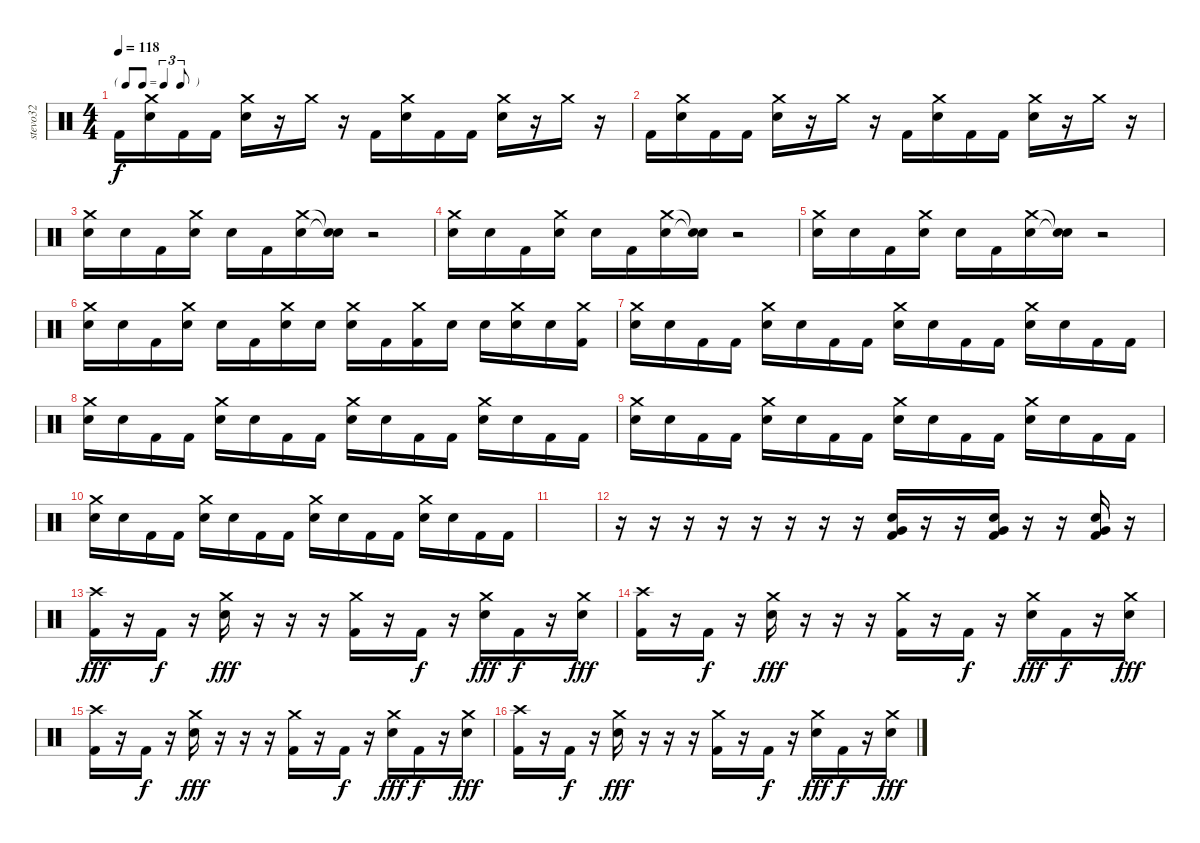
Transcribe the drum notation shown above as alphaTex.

\track ("stevo32" "stevo32") {instrument percussion}
\staff {score}
\articulation defaults
\ts (4 4)
\tf triplet8th
\tempo 118
\clef neutral
\ks c "Kick (hit) 2".16{dy f}
("Crash medium (hit)" "Electric Snare (hit)").16 "Kick (hit) 2".16 "Kick (hit) 2".16 ("Crash medium (hit)" "Electric Snare (hit)").16 r.16 "Crash medium (hit)".16 r.16 "Kick (hit) 2".16 ("Crash medium (hit)" "Electric Snare (hit)").16 "Kick (hit) 2".16 "Kick (hit) 2".16 ("Crash medium (hit)" "Electric Snare (hit)").16 r.16 "Crash medium (hit)".16 r.16 |
"Kick (hit) 2".16 ("Crash medium (hit)" "Electric Snare (hit)").16 "Kick (hit) 2".16 "Kick (hit) 2".16 ("Crash medium (hit)" "Electric Snare (hit)").16 r.16 "Crash medium (hit)".16 r.16 "Kick (hit) 2".16 ("Crash medium (hit)" "Electric Snare (hit)").16 "Kick (hit) 2".16 "Kick (hit) 2".16 ("Crash medium (hit)" "Electric Snare (hit)").16 r.16 "Crash medium (hit)".16 r.16 |
("Crash medium (hit)" "Electric Snare (hit)").16 "Electric Snare (hit)".16 "Kick (hit) 2".16 ("Crash medium (hit)" "Electric Snare (hit)").16 "Electric Snare (hit)".16 "Kick (hit) 2".16 ("Crash medium (hit)" "Electric Snare (hit)").16 ("Snare (hit)"{t} "Snare (hit)"{t}).16 r.2 |
("Crash medium (hit)" "Electric Snare (hit)").16 "Electric Snare (hit)".16 "Kick (hit) 2".16 ("Crash medium (hit)" "Electric Snare (hit)").16 "Electric Snare (hit)".16 "Kick (hit) 2".16 ("Crash medium (hit)" "Electric Snare (hit)").16 ("Snare (hit)"{t} "Snare (hit)"{t}).16 r.2 |
("Crash medium (hit)" "Electric Snare (hit)").16 "Electric Snare (hit)".16 "Kick (hit) 2".16 ("Crash medium (hit)" "Electric Snare (hit)").16 "Electric Snare (hit)".16 "Kick (hit) 2".16 ("Crash medium (hit)" "Electric Snare (hit)").16 ("Snare (hit)"{t} "Snare (hit)"{t}).16 r.2 |
("Crash medium (hit)" "Electric Snare (hit)").16 "Electric Snare (hit)".16 "Kick (hit) 2".16 ("Crash medium (hit)" "Electric Snare (hit)").16 "Electric Snare (hit)".16 "Kick (hit) 2".16 ("Crash medium (hit)" "Electric Snare (hit)").16 "Electric Snare (hit)".16 ("Crash medium (hit)" "Electric Snare (hit)").16 "Kick (hit) 2".16 ("Crash medium (hit)" "Kick (hit) 2").16 "Electric Snare (hit)".16 "Electric Snare (hit)".16 ("Crash medium (hit)" "Electric Snare (hit)").16 "Electric Snare (hit)".16 ("Crash medium (hit)" "Kick (hit) 2").16 |
("Crash medium (hit)" "Electric Snare (hit)").16 "Electric Snare (hit)".16 "Kick (hit) 2".16 "Kick (hit) 2".16 ("Crash medium (hit)" "Electric Snare (hit)").16 "Electric Snare (hit)".16 "Kick (hit) 2".16 "Kick (hit) 2".16 ("Crash medium (hit)" "Electric Snare (hit)").16 "Electric Snare (hit)".16 "Kick (hit) 2".16 "Kick (hit) 2".16 ("Crash medium (hit)" "Electric Snare (hit)").16 "Electric Snare (hit)".16 "Kick (hit) 2".16 "Kick (hit) 2".16 |
("Crash medium (hit)" "Electric Snare (hit)").16 "Electric Snare (hit)".16 "Kick (hit) 2".16 "Kick (hit) 2".16 ("Crash medium (hit)" "Electric Snare (hit)").16 "Electric Snare (hit)".16 "Kick (hit) 2".16 "Kick (hit) 2".16 ("Crash medium (hit)" "Electric Snare (hit)").16 "Electric Snare (hit)".16 "Kick (hit) 2".16 "Kick (hit) 2".16 ("Crash medium (hit)" "Electric Snare (hit)").16 "Electric Snare (hit)".16 "Kick (hit) 2".16 "Kick (hit) 2".16 |
("Crash medium (hit)" "Electric Snare (hit)").16 "Electric Snare (hit)".16 "Kick (hit) 2".16 "Kick (hit) 2".16 ("Crash medium (hit)" "Electric Snare (hit)").16 "Electric Snare (hit)".16 "Kick (hit) 2".16 "Kick (hit) 2".16 ("Crash medium (hit)" "Electric Snare (hit)").16 "Electric Snare (hit)".16 "Kick (hit) 2".16 "Kick (hit) 2".16 ("Crash medium (hit)" "Electric Snare (hit)").16 "Electric Snare (hit)".16 "Kick (hit) 2".16 "Kick (hit) 2".16 |
("Crash medium (hit)" "Electric Snare (hit)").16 "Electric Snare (hit)".16 "Kick (hit) 2".16 "Kick (hit) 2".16 ("Crash medium (hit)" "Electric Snare (hit)").16 "Electric Snare (hit)".16 "Kick (hit) 2".16 "Kick (hit) 2".16 ("Crash medium (hit)" "Electric Snare (hit)").16 "Electric Snare (hit)".16 "Kick (hit) 2".16 "Kick (hit) 2".16 ("Crash medium (hit)" "Electric Snare (hit)").16 "Electric Snare (hit)".16 "Kick (hit) 2".16 "Kick (hit) 2".16 |
|
r.16 r.16 r.16 r.16 r.16 r.16 r.16 r.16 ("Very Low Tom (hit)" "Electric Snare (hit)" "Kick (hit) 2").16 r.16 r.16 ("Very Low Tom (hit)" "Electric Snare (hit)" "Kick (hit) 2").16 r.16 r.16 ("Very Low Tom (hit)" "Electric Snare (hit)" "Kick (hit) 2").16 r.16 |
("Crash high (hit)" "Kick (hit) 2").16{dy fff} r.16 "Kick (hit) 2".16{dy f} r.16 ("Crash medium (hit)" "Electric Snare (hit)").16{dy fff} r.16 r.16 r.16 ("Crash medium (hit)" "Kick (hit) 2").16 r.16 "Kick (hit) 2".16{dy f} r.16 ("Crash medium (hit)" "Electric Snare (hit)").16{dy fff} "Kick (hit) 2".16{dy f} r.16 ("Crash medium (hit)" "Electric Snare (hit)").16{dy fff} |
("Crash high (hit)" "Kick (hit) 2").16 r.16 "Kick (hit) 2".16{dy f} r.16 ("Crash medium (hit)" "Electric Snare (hit)").16{dy fff} r.16 r.16 r.16 ("Crash medium (hit)" "Kick (hit) 2").16 r.16 "Kick (hit) 2".16{dy f} r.16 ("Crash medium (hit)" "Electric Snare (hit)").16{dy fff} "Kick (hit) 2".16{dy f} r.16 ("Crash medium (hit)" "Electric Snare (hit)").16{dy fff} |
("Crash high (hit)" "Kick (hit) 2").16 r.16 "Kick (hit) 2".16{dy f} r.16 ("Crash medium (hit)" "Electric Snare (hit)").16{dy fff} r.16 r.16 r.16 ("Crash medium (hit)" "Kick (hit) 2").16 r.16 "Kick (hit) 2".16{dy f} r.16 ("Crash medium (hit)" "Electric Snare (hit)").16{dy fff} "Kick (hit) 2".16{dy f} r.16 ("Crash medium (hit)" "Electric Snare (hit)").16{dy fff} |
("Crash high (hit)" "Kick (hit) 2").16 r.16 "Kick (hit) 2".16{dy f} r.16 ("Crash medium (hit)" "Electric Snare (hit)").16{dy fff} r.16 r.16 r.16 ("Crash medium (hit)" "Kick (hit) 2").16 r.16 "Kick (hit) 2".16{dy f} r.16 ("Crash medium (hit)" "Electric Snare (hit)").16{dy fff} "Kick (hit) 2".16{dy f} r.16 ("Crash medium (hit)" "Electric Snare (hit)").16{dy fff}
